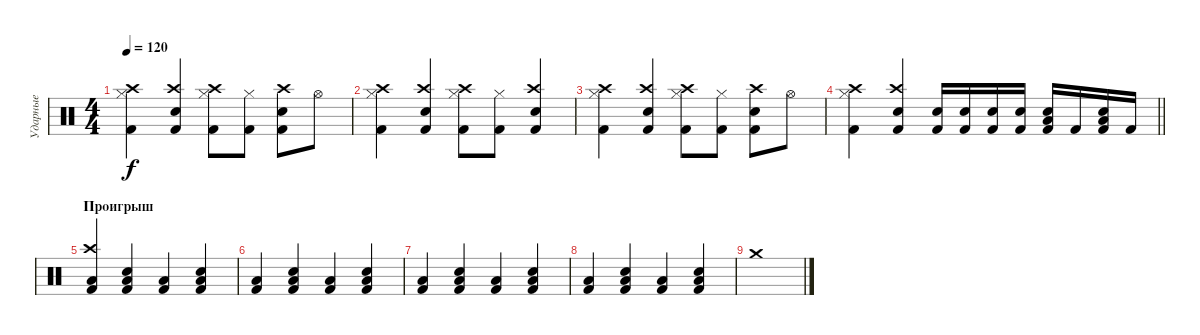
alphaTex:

\track ("Ударные" "Ударные") {instrument percussion}
\staff {score}
\articulation defaults
\ts (4 4)
\tempo 120
\clef neutral
\ks c
("Kick (hit) 2" "Hi-Hat (closed)" "Crash high (hit)").4{dy f} ("Snare (hit) 2" "Kick (hit) 2" "Crash high (hit)").4 ("Kick (hit) 2" "Hi-Hat (closed)" "Crash high (hit)").8 ("Kick (hit) 2" "Hi-Hat (closed)").8 ("Snare (hit) 2" "Kick (hit) 2" "Crash high (hit)").8 "Hi-Hat (open)".8 |
("Kick (hit) 2" "Hi-Hat (closed)" "Crash high (hit)").4 ("Snare (hit) 2" "Kick (hit) 2" "Crash high (hit)").4 ("Kick (hit) 2" "Hi-Hat (closed)" "Crash high (hit)").8 ("Kick (hit) 2" "Hi-Hat (closed)").8 ("Snare (hit) 2" "Kick (hit) 2" "Crash high (hit)").4 |
("Kick (hit) 2" "Hi-Hat (closed)" "Crash high (hit)").4 ("Snare (hit) 2" "Kick (hit) 2" "Crash high (hit)").4 ("Kick (hit) 2" "Hi-Hat (closed)" "Crash high (hit)").8 ("Kick (hit) 2" "Hi-Hat (closed)").8 ("Snare (hit) 2" "Kick (hit) 2" "Crash high (hit)").8 "Hi-Hat (open)".8 |
\barLineRight lightlight
("Kick (hit) 2" "Hi-Hat (closed)" "Crash high (hit)").4 ("Snare (hit) 2" "Kick (hit) 2" "Crash high (hit)").4 ("Electric Snare (hit)" "Kick (hit) 2").16 ("Electric Snare (hit)" "Kick (hit) 2").16 ("Electric Snare (hit)" "Kick (hit) 2").16 ("Electric Snare (hit)" "Kick (hit) 2").16 ("Low Tom (hit)" "Electric Snare (hit)" "Kick (hit) 2").16 "Kick (hit) 2".16 ("Low Tom (hit)" "Electric Snare (hit)" "Kick (hit) 2").16 "Kick (hit) 2".16 |
\section ("" "Проигрыш")
("Low Tom (hit)" "Kick (hit) 2" "Crash high (hit)").4 ("Low Tom (hit)" "Electric Snare (hit)" "Kick (hit) 2").4 ("Low Tom (hit)" "Kick (hit) 2").4 ("Low Tom (hit)" "Electric Snare (hit)" "Kick (hit) 2").4 |
("Low Tom (hit)" "Kick (hit) 2").4 ("Low Tom (hit)" "Electric Snare (hit)" "Kick (hit) 2").4 ("Low Tom (hit)" "Kick (hit) 2").4 ("Low Tom (hit)" "Electric Snare (hit)" "Kick (hit) 2").4 |
("Low Tom (hit)" "Kick (hit) 2").4 ("Low Tom (hit)" "Electric Snare (hit)" "Kick (hit) 2").4 ("Low Tom (hit)" "Kick (hit) 2").4 ("Low Tom (hit)" "Electric Snare (hit)" "Kick (hit) 2").4 |
("Low Tom (hit)" "Kick (hit) 2").4 ("Low Tom (hit)" "Electric Snare (hit)" "Kick (hit) 2").4 ("Low Tom (hit)" "Kick (hit) 2").4 ("Low Tom (hit)" "Electric Snare (hit)" "Kick (hit) 2").4 |
"Crash medium (hit)".1
